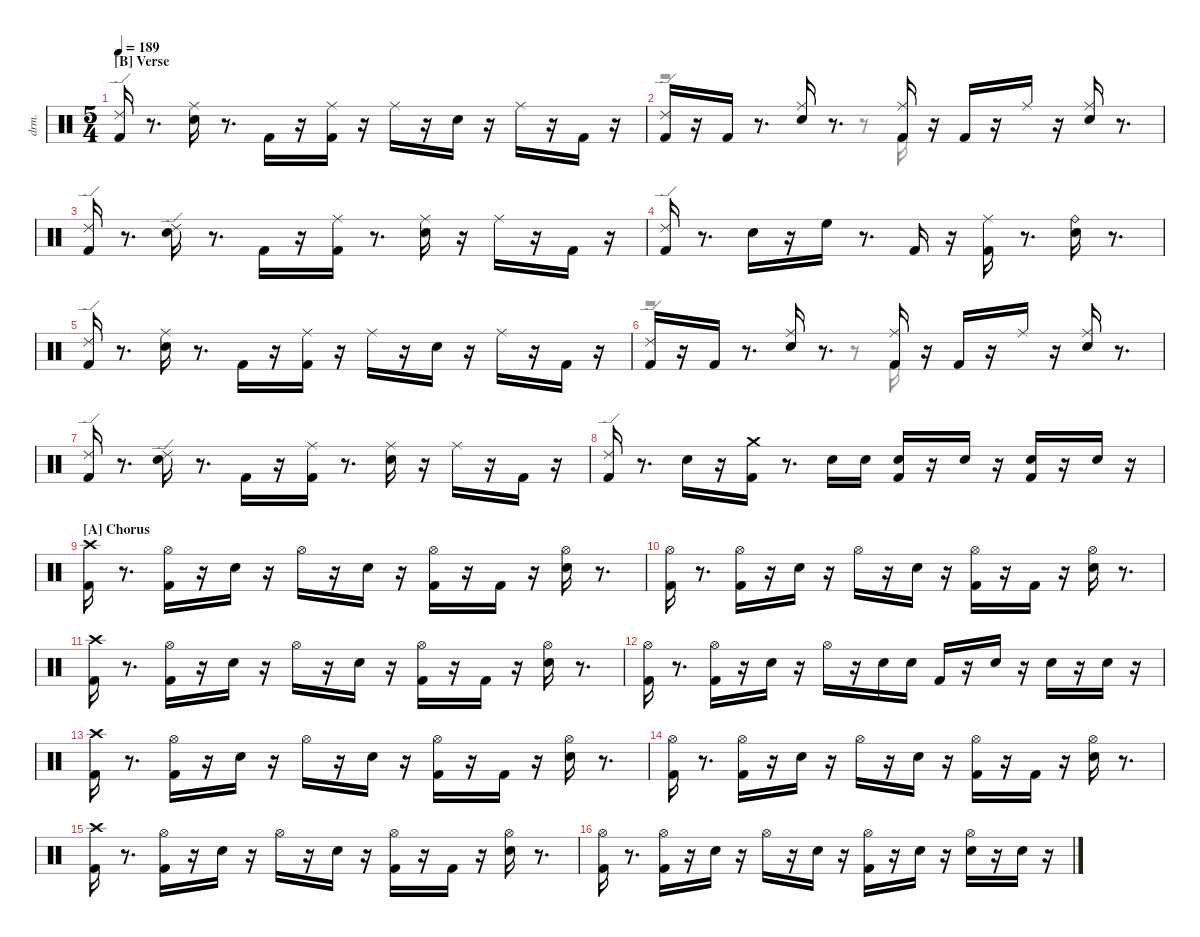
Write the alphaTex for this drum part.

\defaultSystemsLayout 4
\hideDynamics
\bracketExtendMode nobrackets
\track ("EZdrummer 3" "drm.") {instrument percussion}
\staff {score}
\articulation defaults
\voice
\ts (5 4)
\section ("B" "Verse")
\tempo 189
\clef neutral
\ks aminor
("Kick (hit) 2" "Ride (edge) 2").16{dy fff} r.8{d} ("Snare (hit) 2" "Ride (middle)"{acc #}).16{dy ff} r.8{d} "Kick (hit) 2".16{dy f} r.16 ("Kick (hit) 2" "Ride (middle)"{acc #}).16{dy fff} r.16 "Ride (middle)"{acc #}.16 r.16 "Snare (hit) 2".16{dy ff} r.16 "Ride (middle)"{acc #}.16 r.16 "Kick (hit) 2".16{dy mf} r.16 |
("Kick (hit) 2" "Ride (edge) 2").16{dy fff} r.16 "Kick (hit) 2".16{dy f} r.8{d} ("Snare (hit) 2" "Ride (middle)"{acc #}).16{dy ff} r.8{d} ("Kick (hit) 2" "Ride (middle)"{acc #}).16{dy mf} r.16 "Kick (hit) 2".16{dy fff} r.16 "Ride (middle)"{acc #}.16{dy mf} r.16 ("Snare (hit) 2" "Ride (middle)"{acc #}).16{dy fff} r.8{d} |
("Kick (hit) 2" "Ride (edge) 2").16{dy f} r.8{d} ("Snare (hit) 2" "Ride (edge) 2").16{dy ff} r.8{d} "Kick (hit) 2".16{dy f} r.16 ("Kick (hit) 2" "Ride (middle)"{acc #}).16{dy fff} r.8{d} ("Snare (hit) 2" "Ride (middle)"{acc #}).16{dy ff} r.16 "Ride (middle)"{acc #}.16{dy fff} r.16 "Kick (hit) 2".16{dy f} r.16 |
("Kick (hit) 2" "Ride (edge) 2").16{dy fff} r.8{d} "Snare (hit) 2".16{dy ff} r.16 "High Floor Tom (hit)".16{dy fff} r.8{d} "Kick (hit) 2".16{dy ff} r.16 ("Kick (hit) 2" "Ride (middle)"{acc #}).16 r.8{d} ("Snare (hit) 2" "Ride (bell)").16{dy fff} r.8{d} |
("Kick (hit) 2" "Ride (edge) 2").16 r.8{d} ("Snare (hit) 2" "Ride (middle)"{acc #}).16{dy ff} r.8{d} "Kick (hit) 2".16{dy f} r.16 ("Kick (hit) 2" "Ride (middle)"{acc #}).16{dy fff} r.16 "Ride (middle)"{acc #}.16 r.16 "Snare (hit) 2".16{dy ff} r.16 "Ride (middle)"{acc #}.16 r.16 "Kick (hit) 2".16{dy mf} r.16 |
("Kick (hit) 2" "Ride (edge) 2").16{dy fff} r.16 "Kick (hit) 2".16{dy f} r.8{d} ("Snare (hit) 2" "Ride (middle)"{acc #}).16{dy ff} r.8{d} ("Kick (hit) 2" "Ride (middle)"{acc #}).16{dy mf} r.16 "Kick (hit) 2".16{dy fff} r.16 "Ride (middle)"{acc #}.16{dy mf} r.16 ("Snare (hit) 2" "Ride (middle)"{acc #}).16{dy fff} r.8{d} |
("Kick (hit) 2" "Ride (edge) 2").16{dy f} r.8{d} ("Snare (hit) 2" "Ride (edge) 2").16{dy ff} r.8{d} "Kick (hit) 2".16{dy f} r.16 ("Kick (hit) 2" "Ride (middle)"{acc #}).16{dy fff} r.8{d} ("Snare (hit) 2" "Ride (middle)"{acc #}).16{dy ff} r.16 "Ride (middle)"{acc #}.16{dy fff} r.16 "Kick (hit) 2".16{dy f} r.16 |
("Kick (hit) 2" "Ride (edge) 2").16{dy fff} r.8{d} "Snare (hit) 2".16{dy ff} r.16 ("Kick (hit) 2" "Crash medium (hit)").16{dy fff} r.8{d} "Snare (hit) 2".16{dy mf} "Snare (hit) 2".16{dy mp} ("Kick (hit) 2" "Snare (hit) 2").16{dy ff} r.16 "Snare (hit) 2".16{dy fff} r.16 ("Kick (hit) 2" "Snare (hit) 2").16{dy ff} r.16 "Snare (hit) 2".16{dy fff} r.16 |
\section ("A" "Chorus")
("Kick (hit) 2" "Crash high (hit)"{acc #}).16 r.8{d} ("Kick (hit) 2" "Hi-Hat (open)"{acc #}).16{dy ff} r.16 "Snare (hit) 2".16 r.16 "Hi-Hat (open)"{acc #}.16{dy fff} r.16 "Snare (hit) 2".16{dy mf} r.16 ("Kick (hit) 2" "Hi-Hat (open)"{acc #}).16{dy f} r.16 "Kick (hit) 2".16{dy ff} r.16 ("Snare (hit) 2" "Hi-Hat (open)"{acc #}).16 r.8{d} |
("Kick (hit) 2" "Hi-Hat (open)"{acc #}).16 r.8{d} ("Kick (hit) 2" "Hi-Hat (open)"{acc #}).16 r.16 "Snare (hit) 2".16 r.16 "Hi-Hat (open)"{acc #}.16{dy fff} r.16 "Snare (hit) 2".16{dy f} r.16 ("Kick (hit) 2" "Hi-Hat (open)"{acc #}).16 r.16 "Kick (hit) 2".16{dy fff} r.16 ("Snare (hit) 2" "Hi-Hat (open)"{acc #}).16{dy ff} r.8{d} |
("Kick (hit) 2" "Crash high (hit)"{acc #}).16 r.8{d} ("Kick (hit) 2" "Hi-Hat (open)"{acc #}).16 r.16 "Snare (hit) 2".16 r.16 "Hi-Hat (open)"{acc #}.16{dy fff} r.16 "Snare (hit) 2".16{dy mf} r.16 ("Kick (hit) 2" "Hi-Hat (open)"{acc #}).16{dy ff} r.16 "Kick (hit) 2".16 r.16 ("Snare (hit) 2" "Hi-Hat (open)"{acc #}).16 r.8{d} |
("Kick (hit) 2" "Hi-Hat (open)"{acc #}).16 r.8{d} ("Kick (hit) 2" "Hi-Hat (open)"{acc #}).16 r.16 "Snare (hit) 2".16 r.16 "Hi-Hat (open)"{acc #}.16 r.16 "Snare (hit) 2".16{dy fff} "Snare (hit) 2".16{dy f} "Kick (hit) 2".16{dy ff} r.16 "Snare (hit) 2".16 r.16 "Snare (hit) 2".16 r.16 "Snare (hit) 2".16{dy fff} r.16 |
("Kick (hit) 2" "Crash high (hit)"{acc #}).16{dy ff} r.8{d} ("Kick (hit) 2" "Hi-Hat (open)"{acc #}).16{dy f} r.16 "Snare (hit) 2".16{dy ff} r.16 "Hi-Hat (open)"{acc #}.16{dy fff} r.16 "Snare (hit) 2".16{dy mf} r.16 ("Kick (hit) 2" "Hi-Hat (open)"{acc #}).16{dy f} r.16 "Kick (hit) 2".16{dy ff} r.16 ("Snare (hit) 2" "Hi-Hat (open)"{acc #}).16 r.8{d} |
("Kick (hit) 2" "Hi-Hat (open)"{acc #}).16 r.8{d} ("Kick (hit) 2" "Hi-Hat (open)"{acc #}).16 r.16 "Snare (hit) 2".16 r.16 "Hi-Hat (open)"{acc #}.16{dy fff} r.16 "Snare (hit) 2".16{dy f} r.16 ("Kick (hit) 2" "Hi-Hat (open)"{acc #}).16 r.16 "Kick (hit) 2".16{dy fff} r.16 ("Snare (hit) 2" "Hi-Hat (open)"{acc #}).16{dy ff} r.8{d} |
("Kick (hit) 2" "Crash high (hit)"{acc #}).16 r.8{d} ("Kick (hit) 2" "Hi-Hat (open)"{acc #}).16 r.16 "Snare (hit) 2".16 r.16 "Hi-Hat (open)"{acc #}.16{dy fff} r.16 "Snare (hit) 2".16{dy mf} r.16 ("Kick (hit) 2" "Hi-Hat (open)"{acc #}).16{dy ff} r.16 "Kick (hit) 2".16 r.16 ("Snare (hit) 2" "Hi-Hat (open)"{acc #}).16 r.8{d} |
("Kick (hit) 2" "Hi-Hat (open)"{acc #}).16 r.8{d} ("Kick (hit) 2" "Hi-Hat (open)"{acc #}).16 r.16 "Snare (hit) 2".16 r.16 "Hi-Hat (open)"{acc #}.16{dy fff} r.16 "Snare (hit) 2".16{dy f} r.16 ("Kick (hit) 2" "Hi-Hat (open)"{acc #}).16{dy ff} r.16 "Snare (hit) 2".16{dy f} r.16 ("Snare (hit) 2" "Hi-Hat (open)"{acc #}).16{dy ff} r.16 "Snare (hit) 2".16{dy fff} r.16
\voice
\clef neutral
\ottava regular
\simile none
\ks aminor
|
r.2 r.8 "Kick (hit) 2".16 |
|
|
|
r.2 r.8 "Kick (hit) 2".16 |
|
|
|
|
|
|
|
|
|
